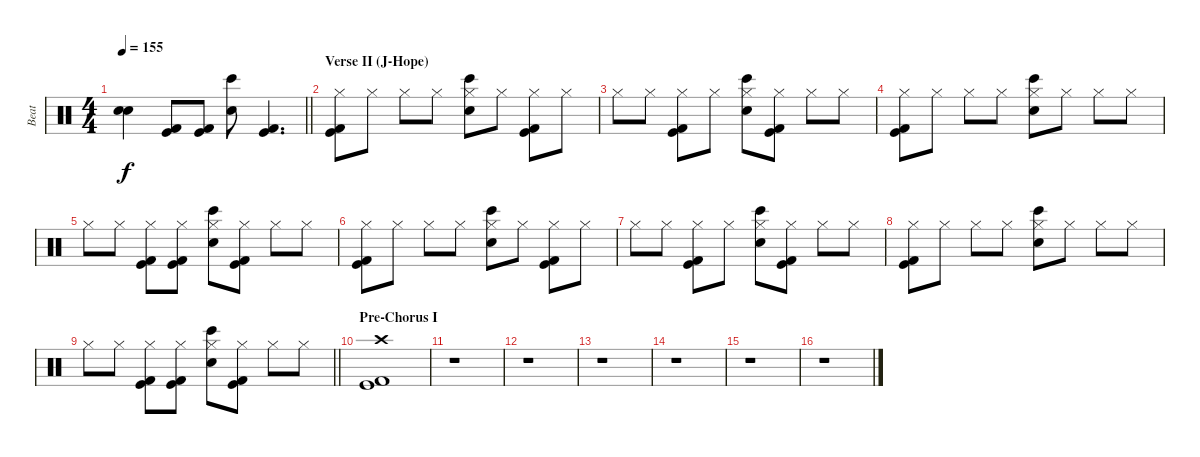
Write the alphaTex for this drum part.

\track ("Beat" "Beat") {instrument percussion}
\staff {score}
\articulation defaults
\ts (4 4)
\tempo 155
\clef neutral
\barLineRight lightlight
\ks c
("Snare (hit)"{t} "Snare (hit)"{t}).4{dy f} ("Kick (hit)" "Kick (hit) 2").8 ("Kick (hit)" "Kick (hit) 2").8 ("Hand Clap (hit)" "Bongo High (hit)").8 ("Kick (hit)" "Kick (hit) 2").4{d} |
\section ("" "Verse II (J-Hope)")
("Hi-Hat (closed)" "Kick (hit)" "Kick (hit) 2").8 "Hi-Hat (closed)".8 "Hi-Hat (closed)".8 "Hi-Hat (closed)".8 ("Hi-Hat (closed)" "Hand Clap (hit)" "Bongo High (hit)").8 "Hi-Hat (closed)".8 ("Hi-Hat (closed)" "Kick (hit)" "Kick (hit) 2").8 "Hi-Hat (closed)".8 |
"Hi-Hat (closed)".8 "Hi-Hat (closed)".8 ("Hi-Hat (closed)" "Kick (hit)" "Kick (hit) 2").8 "Hi-Hat (closed)".8 ("Hi-Hat (closed)" "Hand Clap (hit)" "Bongo High (hit)").8 ("Hi-Hat (closed)" "Kick (hit)" "Kick (hit) 2").8 "Hi-Hat (closed)".8 "Hi-Hat (closed)".8 |
("Hi-Hat (closed)" "Kick (hit)" "Kick (hit) 2").8 "Hi-Hat (closed)".8 "Hi-Hat (closed)".8 "Hi-Hat (closed)".8 ("Hi-Hat (closed)" "Hand Clap (hit)" "Bongo High (hit)").8 "Hi-Hat (closed)".8 "Hi-Hat (closed)".8 "Hi-Hat (closed)".8 |
"Hi-Hat (closed)".8 "Hi-Hat (closed)".8 ("Hi-Hat (closed)" "Kick (hit)" "Kick (hit) 2").8 ("Hi-Hat (closed)" "Kick (hit)" "Kick (hit) 2").8 ("Hi-Hat (closed)" "Hand Clap (hit)" "Bongo High (hit)").8 ("Hi-Hat (closed)" "Kick (hit)" "Kick (hit) 2").8 "Hi-Hat (closed)".8 "Hi-Hat (closed)".8 |
("Hi-Hat (closed)" "Kick (hit)" "Kick (hit) 2").8 "Hi-Hat (closed)".8 "Hi-Hat (closed)".8 "Hi-Hat (closed)".8 ("Hi-Hat (closed)" "Hand Clap (hit)" "Bongo High (hit)").8 "Hi-Hat (closed)".8 ("Hi-Hat (closed)" "Kick (hit)" "Kick (hit) 2").8 "Hi-Hat (closed)".8 |
"Hi-Hat (closed)".8 "Hi-Hat (closed)".8 ("Hi-Hat (closed)" "Kick (hit)" "Kick (hit) 2").8 "Hi-Hat (closed)".8 ("Hi-Hat (closed)" "Hand Clap (hit)" "Bongo High (hit)").8 ("Hi-Hat (closed)" "Kick (hit)" "Kick (hit) 2").8 "Hi-Hat (closed)".8 "Hi-Hat (closed)".8 |
("Hi-Hat (closed)" "Kick (hit)" "Kick (hit) 2").8 "Hi-Hat (closed)".8 "Hi-Hat (closed)".8 "Hi-Hat (closed)".8 ("Hi-Hat (closed)" "Hand Clap (hit)" "Bongo High (hit)").8 "Hi-Hat (closed)".8 "Hi-Hat (closed)".8 "Hi-Hat (closed)".8 |
\barLineRight lightlight "Hi-Hat (closed)".8 "Hi-Hat (closed)".8
("Hi-Hat (closed)" "Kick (hit)" "Kick (hit) 2").8 ("Hi-Hat (closed)" "Kick (hit)" "Kick (hit) 2").8 ("Hi-Hat (closed)" "Hand Clap (hit)" "Bongo High (hit)").8 ("Hi-Hat (closed)" "Kick (hit)" "Kick (hit) 2").8 "Hi-Hat (closed)".8 "Hi-Hat (closed)".8 |
\section ("" "Pre-Chorus I")
("Crash high (hit)" "Kick (hit)" "Kick (hit) 2").1 |
r.1 |
r.1 |
r.1 |
r.1 |
r.1 |
r.1
